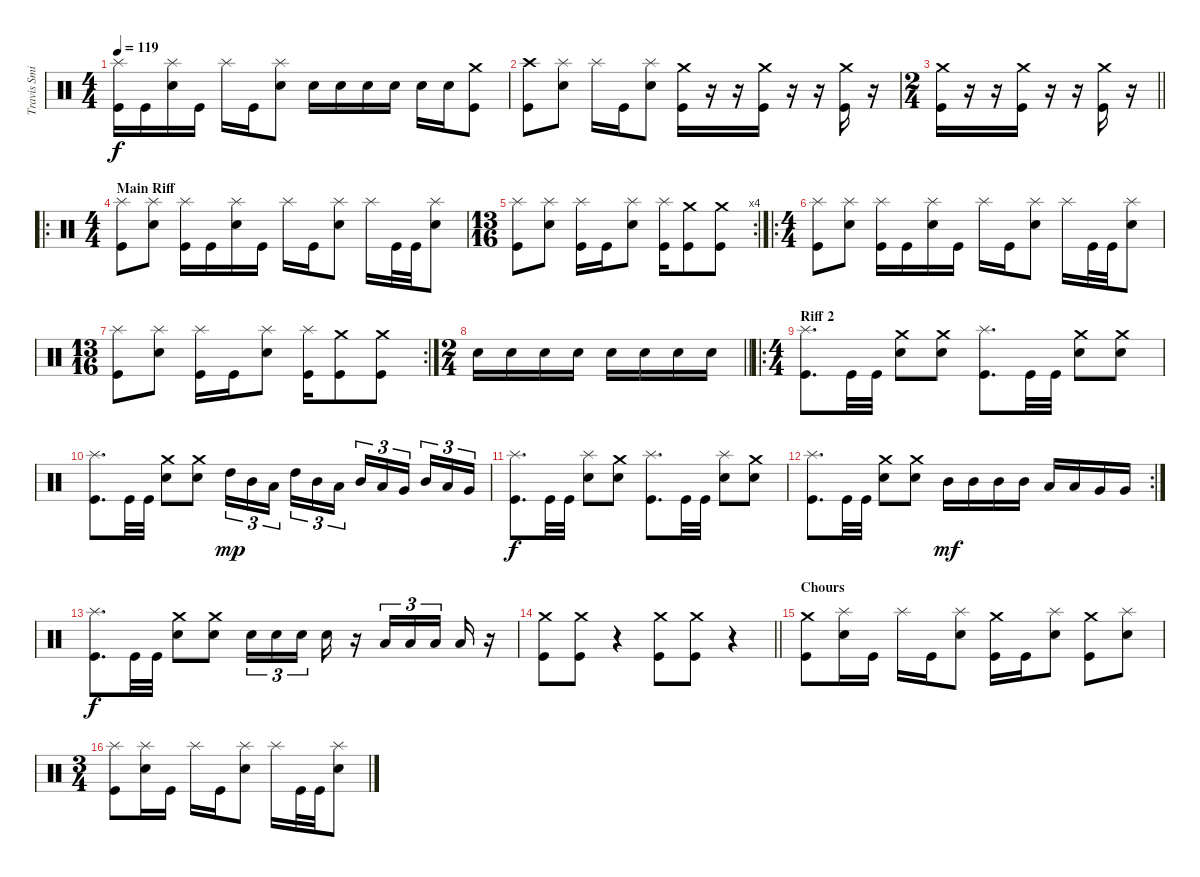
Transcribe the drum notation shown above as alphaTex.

\track ("Travis Smith (Drums)" "Travis Smi") {instrument percussion}
\staff {score}
\articulation defaults
\ts (4 4)
\tempo 119
\clef neutral
\ks c
("Splash (hit)" "Kick (hit)").16{dy f} "Kick (hit)".16 ("Splash (hit)" "Electric Snare (hit)").16 "Kick (hit)".16 "Splash (hit)".16 "Kick (hit)".16 ("Splash (hit)" "Electric Snare (hit)").8 "Electric Snare (hit)".16 "Electric Snare (hit)".16 "Electric Snare (hit)".16 "Electric Snare (hit)".16 "Electric Snare (hit)".16 "Electric Snare (hit)".16 ("Crash medium (hit)" "Kick (hit)").8 |
("Crash high (hit)" "Kick (hit)").8 ("Splash (hit)" "Electric Snare (hit)").8 "Splash (hit)".16 "Kick (hit)".16 ("Splash (hit)" "Electric Snare (hit)").8 ("Crash medium (hit)" "Kick (hit)").16 r.16 r.16 ("Crash medium (hit)" "Kick (hit)").16 r.16 r.16 ("Crash medium (hit)" "Kick (hit)").16 r.16 |
\ts (2 4)
\barLineRight lightlight
("Crash medium (hit)" "Kick (hit)").16 r.16 r.16 ("Crash medium (hit)" "Kick (hit)").16 r.16 r.16 ("Crash medium (hit)" "Kick (hit)").16 r.16 |
\ro
\ts (4 4)
\section ("" "Main Riff")
("Splash (hit)" "Kick (hit)").8 ("Splash (hit)" "Electric Snare (hit)").8 ("Splash (hit)" "Kick (hit)").16 "Kick (hit)".16 ("Splash (hit)" "Electric Snare (hit)").16 "Kick (hit)".16 "Splash (hit)".16 "Kick (hit)".16 ("Splash (hit)" "Electric Snare (hit)").8 "Splash (hit)".16 "Kick (hit)".32 "Kick (hit)".32 ("Splash (hit)" "Electric Snare (hit)").8 |
\rc 4
\ts (13 16)
("Splash (hit)" "Kick (hit)").8 ("Splash (hit)" "Electric Snare (hit)").8 ("Splash (hit)" "Kick (hit)").16 "Kick (hit)".16 ("Splash (hit)" "Electric Snare (hit)").8 ("Splash (hit)" "Kick (hit)").16 ("Crash medium (hit)" "Kick (hit)").8 ("Crash medium (hit)" "Kick (hit)").8 |
\ro
\ts (4 4)
("Splash (hit)" "Kick (hit)").8 ("Splash (hit)" "Electric Snare (hit)").8 ("Splash (hit)" "Kick (hit)").16 "Kick (hit)".16 ("Splash (hit)" "Electric Snare (hit)").16 "Kick (hit)".16 "Splash (hit)".16 "Kick (hit)".16 ("Splash (hit)" "Electric Snare (hit)").8 "Splash (hit)".16 "Kick (hit)".32 "Kick (hit)".32 ("Splash (hit)" "Electric Snare (hit)").8 |
\rc 2
\ts (13 16)
("Splash (hit)" "Kick (hit)").8 ("Splash (hit)" "Electric Snare (hit)").8 ("Splash (hit)" "Kick (hit)").16 "Kick (hit)".16 ("Splash (hit)" "Electric Snare (hit)").8 ("Splash (hit)" "Kick (hit)").16 ("Crash medium (hit)" "Kick (hit)").8 ("Crash medium (hit)" "Kick (hit)").8 |
\ts (2 4)
\barLineRight lightlight "Electric Snare (hit)".16 "Electric Snare (hit)".16 "Electric Snare (hit)".16 "Electric Snare (hit)".16 "Electric Snare (hit)".16 "Electric Snare (hit)".16 "Electric Snare (hit)".16 "Electric Snare (hit)".16
|
\ro
\ts (4 4)
\section ("" "Riff 2")
("Splash (hit)" "Kick (hit)").8{d} "Kick (hit)".32 "Kick (hit)".32 ("Crash medium (hit)" "Electric Snare (hit)").8 ("Crash medium (hit)" "Electric Snare (hit)").8 ("Splash (hit)" "Kick (hit)").8{d} "Kick (hit)".32 "Kick (hit)".32 ("Crash medium (hit)" "Electric Snare (hit)").8 ("Crash medium (hit)" "Electric Snare (hit)").8 |
("Splash (hit)" "Kick (hit)").8{d} "Kick (hit)".32 "Kick (hit)".32 ("Crash medium (hit)" "Electric Snare (hit)").8 ("Crash medium (hit)" "Electric Snare (hit)").8 "High Tom (hit)".16{tu (3 2) dy mp} "Mid Tom (hit)".16{tu (3 2)} "Low Tom (hit)".16{tu (3 2) beam splitsecondary} "High Tom (hit)".16{tu (3 2)} "Mid Tom (hit)".16{tu (3 2)} "Low Tom (hit)".16{tu (3 2)} "Mid Tom (hit)".16{tu (3 2)} "Low Tom (hit)".16{tu (3 2)} "Very Low Tom (hit)".16{tu (3 2) beam splitsecondary} "Mid Tom (hit)".16{tu (3 2)} "Low Tom (hit)".16{tu (3 2)} "Very Low Tom (hit)".16{tu (3 2)} |
("Splash (hit)" "Kick (hit)").8{d dy f} "Kick (hit)".32 "Kick (hit)".32 ("Splash (hit)" "Electric Snare (hit)").8 ("Crash medium (hit)" "Electric Snare (hit)").8 ("Splash (hit)" "Kick (hit)").8{d} "Kick (hit)".32 "Kick (hit)".32 ("Splash (hit)" "Electric Snare (hit)").8 ("Crash medium (hit)" "Electric Snare (hit)").8 |
\rc 2
("Splash (hit)" "Kick (hit)").8{d} "Kick (hit)".32 "Kick (hit)".32 ("Crash medium (hit)" "Electric Snare (hit)").8 ("Crash medium (hit)" "Electric Snare (hit)").8 "Mid Tom (hit)".16{dy mf} "Mid Tom (hit)".16 "Mid Tom (hit)".16 "Mid Tom (hit)".16 "Low Tom (hit)".16 "Low Tom (hit)".16 "Very Low Tom (hit)".16 "Very Low Tom (hit)".16 |
("Splash (hit)" "Kick (hit)").8{d dy f} "Kick (hit)".32 "Kick (hit)".32 ("Crash medium (hit)" "Electric Snare (hit)").8 ("Crash medium (hit)" "Electric Snare (hit)").8 "Electric Snare (hit)".16{tu (3 2)} "Electric Snare (hit)".16{tu (3 2)} "Electric Snare (hit)".16{tu (3 2) beam splitsecondary} "Electric Snare (hit)".16 r.16 "Low Tom (hit)".16{tu (3 2)} "Low Tom (hit)".16{tu (3 2)} "Low Tom (hit)".16{tu (3 2) beam splitsecondary} "Low Tom (hit)".16 r.16 |
\barLineRight lightlight
("Crash medium (hit)" "Kick (hit)").8 ("Crash medium (hit)" "Kick (hit)").8 r.4 ("Crash medium (hit)" "Kick (hit)").8 ("Crash medium (hit)" "Kick (hit)").8 r.4 |
\section ("" "Chours")
("Crash medium (hit)" "Kick (hit)").8 ("Splash (hit)" "Electric Snare (hit)").16 "Kick (hit)".16 "Splash (hit)".16 "Kick (hit)".16 ("Splash (hit)" "Electric Snare (hit)").8 ("Crash medium (hit)" "Kick (hit)").16 "Kick (hit)".16 ("Splash (hit)" "Electric Snare (hit)").8 ("Crash medium (hit)" "Kick (hit)").8 ("Splash (hit)" "Electric Snare (hit)").8 |
\ts (3 4)
("Splash (hit)" "Kick (hit)").8 ("Splash (hit)" "Electric Snare (hit)").16 "Kick (hit)".16 "Splash (hit)".16 "Kick (hit)".16 ("Splash (hit)" "Electric Snare (hit)").8 "Splash (hit)".16 "Kick (hit)".32 "Kick (hit)".32 ("Splash (hit)" "Electric Snare (hit)").8
